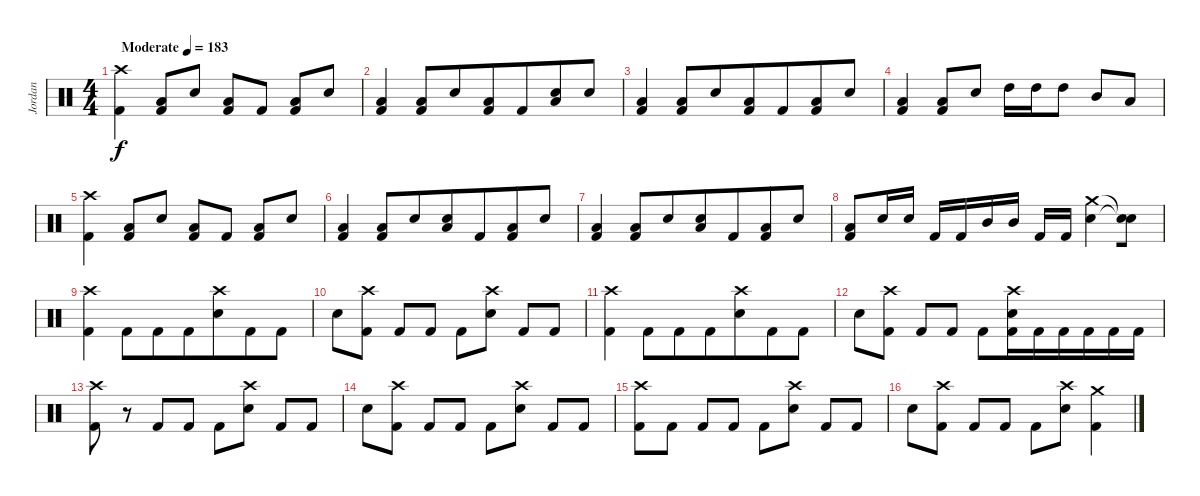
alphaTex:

\track ("Jordan" "Jordan") {instrument percussion bank 82}
\staff {score}
\articulation defaults
\ts (4 4)
\tempo (183 "Moderate")
\clef neutral
\ks c
("Crash high (hit)" "Kick (hit) 2").4{dy f} ("Low Tom (hit)" "Kick (hit) 2").8{beam merge} "Snare (hit) 2".8 ("Low Tom (hit)" "Kick (hit) 2").8 "Kick (hit) 2".8 ("Low Tom (hit)" "Kick (hit) 2").8 "Snare (hit) 2".8 |
("Low Tom (hit)" "Kick (hit) 2").4{beam merge} ("Low Tom (hit)" "Kick (hit) 2").8{beam merge} "Snare (hit) 2".8{beam merge} ("Low Tom (hit)" "Kick (hit) 2").8{beam merge} "Kick (hit) 2".8{beam merge} ("Low Tom (hit)" "Snare (hit) 2").8{beam merge} "Snare (hit) 2".8 |
("Low Tom (hit)" "Kick (hit) 2").4{beam merge} ("Low Tom (hit)" "Kick (hit) 2").8{beam merge} "Snare (hit) 2".8{beam merge} ("Low Tom (hit)" "Kick (hit) 2").8{beam merge} "Kick (hit) 2".8{beam merge} ("Low Tom (hit)" "Kick (hit) 2").8 "Snare (hit) 2".8 |
("Low Tom (hit)" "Kick (hit) 2").4{beam merge} ("Low Tom (hit)" "Kick (hit) 2").8{beam merge} "Snare (hit) 2".8 "High Tom (hit)".16 "High Tom (hit)".16 "High Tom (hit)".8 "Mid Tom (hit)".8 "Low Tom (hit)".8 |
("Crash high (hit)" "Kick (hit) 2").4 ("Low Tom (hit)" "Kick (hit) 2").8{beam merge} "Snare (hit) 2".8 ("Low Tom (hit)" "Kick (hit) 2").8 "Kick (hit) 2".8 ("Low Tom (hit)" "Kick (hit) 2").8 "Snare (hit) 2".8 |
("Low Tom (hit)" "Kick (hit) 2").4{beam merge} ("Low Tom (hit)" "Kick (hit) 2").8{beam merge} "Snare (hit) 2".8{beam merge} ("Low Tom (hit)" "Snare (hit) 2").8{beam merge} "Kick (hit) 2".8{beam merge} ("Low Tom (hit)" "Kick (hit) 2").8{beam merge} "Snare (hit) 2".8 |
("Low Tom (hit)" "Kick (hit) 2").4{beam merge} ("Low Tom (hit)" "Kick (hit) 2").8{beam merge} "Snare (hit) 2".8{beam merge} ("Low Tom (hit)" "Snare (hit) 2").8{beam merge} "Kick (hit) 2".8{beam merge} ("Low Tom (hit)" "Kick (hit) 2").8{beam merge} "Snare (hit) 2".8 |
("Low Tom (hit)" "Kick (hit) 2").8{beam merge} "Snare (hit) 2".16 "Snare (hit) 2".16 "Kick (hit) 2".16 "Kick (hit) 2".16{beam merge} "Mid Tom (hit)".16 "Mid Tom (hit)".16 "Kick (hit) 2".16 "Kick (hit) 2".16 ("Crash medium (hit)" "Snare (hit) 2").4{beam merge} ("Snare (hit)"{t} "Snare (hit)"{t}).8 |
("Crash high (hit)" "Kick (hit) 2").4 "Kick (hit) 2".8 "Kick (hit) 2".8{beam merge} "Kick (hit) 2".8 ("Crash high (hit)" "Snare (hit) 2").8{beam merge} "Kick (hit) 2".8 "Kick (hit) 2".8 |
"Snare (hit) 2".8 ("Crash high (hit)" "Kick (hit) 2").8 "Kick (hit) 2".8{beam merge} "Kick (hit) 2".8 "Kick (hit) 2".8{beam merge} ("Crash high (hit)" "Snare (hit) 2").8 "Kick (hit) 2".8{beam merge} "Kick (hit) 2".8 |
("Crash high (hit)" "Kick (hit) 2").4 "Kick (hit) 2".8 "Kick (hit) 2".8{beam merge} "Kick (hit) 2".8 ("Crash high (hit)" "Snare (hit) 2").8{beam merge} "Kick (hit) 2".8 "Kick (hit) 2".8 |
"Snare (hit) 2".8 ("Crash high (hit)" "Kick (hit) 2").8 "Kick (hit) 2".8{beam merge} "Kick (hit) 2".8 "Kick (hit) 2".8{beam merge} ("Crash high (hit)" "Snare (hit) 2" "Kick (hit) 2").16{beam merge} "Kick (hit) 2".16{beam merge} "Kick (hit) 2".16 "Kick (hit) 2".16{beam merge} "Kick (hit) 2".16{beam merge} "Kick (hit) 2".16 |
("Crash high (hit)" "Kick (hit) 2").8 r.8 "Kick (hit) 2".8{beam merge} "Kick (hit) 2".8 "Kick (hit) 2".8{beam merge} ("Crash high (hit)" "Snare (hit) 2").8 "Kick (hit) 2".8{beam merge} "Kick (hit) 2".8 |
"Snare (hit) 2".8 ("Crash high (hit)" "Kick (hit) 2").8 "Kick (hit) 2".8{beam merge} "Kick (hit) 2".8 "Kick (hit) 2".8{beam merge} ("Crash high (hit)" "Snare (hit) 2").8 "Kick (hit) 2".8{beam merge} "Kick (hit) 2".8 |
("Crash high (hit)" "Kick (hit) 2").8 "Kick (hit) 2".8 "Kick (hit) 2".8{beam merge} "Kick (hit) 2".8 "Kick (hit) 2".8{beam merge} ("Crash high (hit)" "Snare (hit) 2").8 "Kick (hit) 2".8{beam merge} "Kick (hit) 2".8 |
"Snare (hit) 2".8 ("Crash high (hit)" "Kick (hit) 2").8 "Kick (hit) 2".8{beam merge} "Kick (hit) 2".8 "Kick (hit) 2".8{beam merge} ("Crash high (hit)" "Snare (hit) 2").8 ("Crash medium (hit)" "Kick (hit) 2").4
